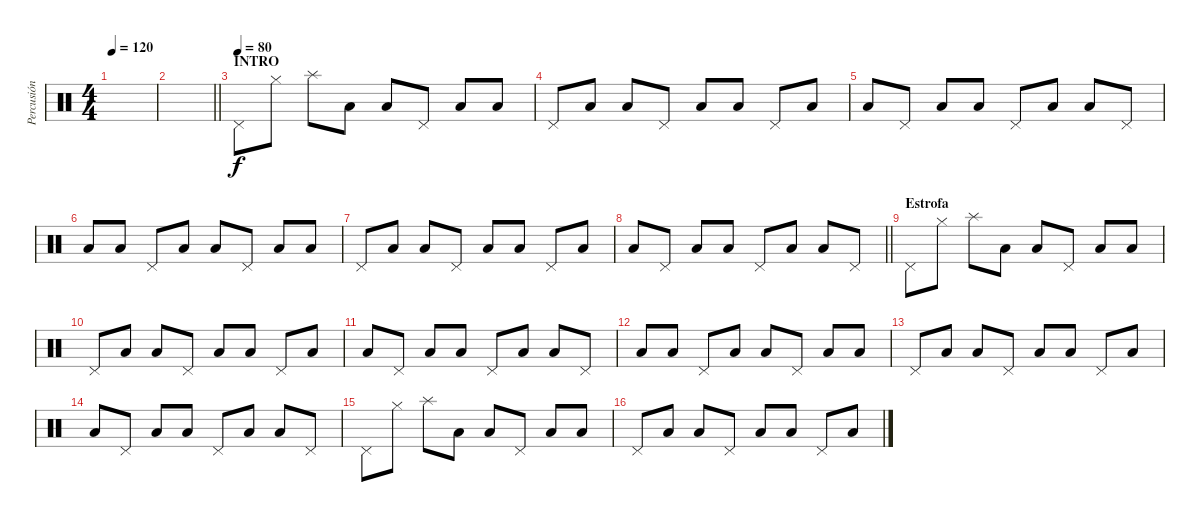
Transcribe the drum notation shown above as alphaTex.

\track ("Percusión" "Percusión") {instrument percussion}
\staff {score}
\articulation defaults
\ts (4 4)
\tempo 120
\clef neutral
\ks c
|
\barLineRight lightlight
|
\section ("" "INTRO")
\tempo (80)
"Pedal Hi-Hat (hit)".8 "Hi-Hat (closed)".8 "Splash (hit)".8 "Low Floor Tom (hit)".8 "Low Floor Tom (hit)".8 "Pedal Hi-Hat (hit)".8 "Low Floor Tom (hit)".8 "Low Floor Tom (hit)".8 |
"Pedal Hi-Hat (hit)".8 "Low Floor Tom (hit)".8 "Low Floor Tom (hit)".8 "Pedal Hi-Hat (hit)".8 "Low Floor Tom (hit)".8 "Low Floor Tom (hit)".8 "Pedal Hi-Hat (hit)".8 "Low Floor Tom (hit)".8 |
"Low Floor Tom (hit)".8 "Pedal Hi-Hat (hit)".8 "Low Floor Tom (hit)".8 "Low Floor Tom (hit)".8 "Pedal Hi-Hat (hit)".8 "Low Floor Tom (hit)".8 "Low Floor Tom (hit)".8 "Pedal Hi-Hat (hit)".8 |
"Low Floor Tom (hit)".8 "Low Floor Tom (hit)".8 "Pedal Hi-Hat (hit)".8 "Low Floor Tom (hit)".8 "Low Floor Tom (hit)".8 "Pedal Hi-Hat (hit)".8 "Low Floor Tom (hit)".8 "Low Floor Tom (hit)".8 |
"Pedal Hi-Hat (hit)".8 "Low Floor Tom (hit)".8 "Low Floor Tom (hit)".8 "Pedal Hi-Hat (hit)".8 "Low Floor Tom (hit)".8 "Low Floor Tom (hit)".8 "Pedal Hi-Hat (hit)".8 "Low Floor Tom (hit)".8 |
\barLineRight lightlight "Low Floor Tom (hit)".8 "Pedal Hi-Hat (hit)".8 "Low Floor Tom (hit)".8 "Low Floor Tom (hit)".8 "Pedal Hi-Hat (hit)".8 "Low Floor Tom (hit)".8 "Low Floor Tom (hit)".8 "Pedal Hi-Hat (hit)".8
|
\section ("" "Estrofa")
"Pedal Hi-Hat (hit)".8 "Hi-Hat (closed)".8 "Splash (hit)".8 "Low Floor Tom (hit)".8 "Low Floor Tom (hit)".8 "Pedal Hi-Hat (hit)".8 "Low Floor Tom (hit)".8 "Low Floor Tom (hit)".8 |
"Pedal Hi-Hat (hit)".8 "Low Floor Tom (hit)".8 "Low Floor Tom (hit)".8 "Pedal Hi-Hat (hit)".8 "Low Floor Tom (hit)".8 "Low Floor Tom (hit)".8 "Pedal Hi-Hat (hit)".8 "Low Floor Tom (hit)".8 |
"Low Floor Tom (hit)".8 "Pedal Hi-Hat (hit)".8 "Low Floor Tom (hit)".8 "Low Floor Tom (hit)".8 "Pedal Hi-Hat (hit)".8 "Low Floor Tom (hit)".8 "Low Floor Tom (hit)".8 "Pedal Hi-Hat (hit)".8 |
"Low Floor Tom (hit)".8 "Low Floor Tom (hit)".8 "Pedal Hi-Hat (hit)".8 "Low Floor Tom (hit)".8 "Low Floor Tom (hit)".8 "Pedal Hi-Hat (hit)".8 "Low Floor Tom (hit)".8 "Low Floor Tom (hit)".8 |
"Pedal Hi-Hat (hit)".8 "Low Floor Tom (hit)".8 "Low Floor Tom (hit)".8 "Pedal Hi-Hat (hit)".8 "Low Floor Tom (hit)".8 "Low Floor Tom (hit)".8 "Pedal Hi-Hat (hit)".8 "Low Floor Tom (hit)".8 |
"Low Floor Tom (hit)".8 "Pedal Hi-Hat (hit)".8 "Low Floor Tom (hit)".8 "Low Floor Tom (hit)".8 "Pedal Hi-Hat (hit)".8 "Low Floor Tom (hit)".8 "Low Floor Tom (hit)".8 "Pedal Hi-Hat (hit)".8 |
"Pedal Hi-Hat (hit)".8 "Hi-Hat (closed)".8 "Splash (hit)".8 "Low Floor Tom (hit)".8 "Low Floor Tom (hit)".8 "Pedal Hi-Hat (hit)".8 "Low Floor Tom (hit)".8 "Low Floor Tom (hit)".8 |
"Pedal Hi-Hat (hit)".8 "Low Floor Tom (hit)".8 "Low Floor Tom (hit)".8 "Pedal Hi-Hat (hit)".8 "Low Floor Tom (hit)".8 "Low Floor Tom (hit)".8 "Pedal Hi-Hat (hit)".8 "Low Floor Tom (hit)".8
